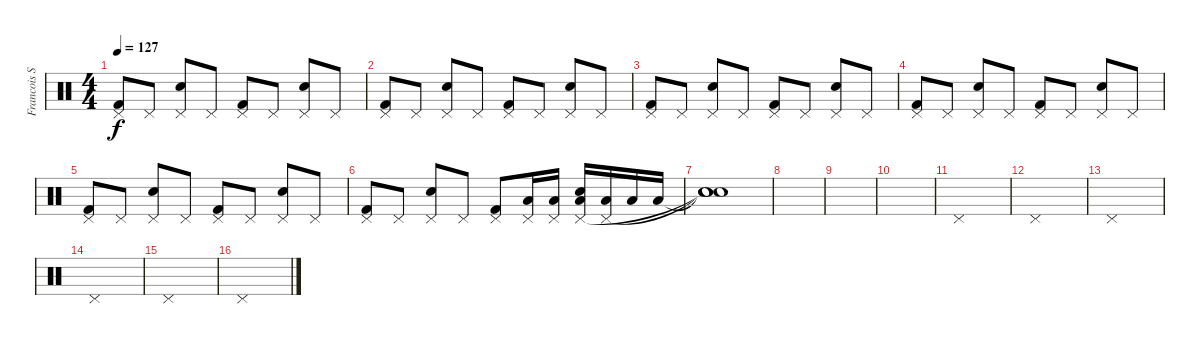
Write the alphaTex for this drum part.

\track ("Francois Soulier" "Francois S") {instrument percussion}
\staff {score}
\articulation defaults
\ts (4 4)
\tempo 127
\clef neutral
\ks c
("Kick (hit) 2" "Pedal Hi-Hat (hit)").8{dy f} "Pedal Hi-Hat (hit)".8 ("Snare (hit) 2" "Pedal Hi-Hat (hit)").8 "Pedal Hi-Hat (hit)".8 ("Kick (hit) 2" "Pedal Hi-Hat (hit)").8 "Pedal Hi-Hat (hit)".8 ("Snare (hit) 2" "Pedal Hi-Hat (hit)").8 "Pedal Hi-Hat (hit)".8 |
("Kick (hit) 2" "Pedal Hi-Hat (hit)").8 "Pedal Hi-Hat (hit)".8 ("Snare (hit) 2" "Pedal Hi-Hat (hit)").8 "Pedal Hi-Hat (hit)".8 ("Kick (hit) 2" "Pedal Hi-Hat (hit)").8 "Pedal Hi-Hat (hit)".8 ("Snare (hit) 2" "Pedal Hi-Hat (hit)").8 "Pedal Hi-Hat (hit)".8 |
("Kick (hit) 2" "Pedal Hi-Hat (hit)").8 "Pedal Hi-Hat (hit)".8 ("Snare (hit) 2" "Pedal Hi-Hat (hit)").8 "Pedal Hi-Hat (hit)".8 ("Kick (hit) 2" "Pedal Hi-Hat (hit)").8 "Pedal Hi-Hat (hit)".8 ("Snare (hit) 2" "Pedal Hi-Hat (hit)").8 "Pedal Hi-Hat (hit)".8 |
("Kick (hit) 2" "Pedal Hi-Hat (hit)").8 "Pedal Hi-Hat (hit)".8 ("Snare (hit) 2" "Pedal Hi-Hat (hit)").8 "Pedal Hi-Hat (hit)".8 ("Kick (hit) 2" "Pedal Hi-Hat (hit)").8 "Pedal Hi-Hat (hit)".8 ("Snare (hit) 2" "Pedal Hi-Hat (hit)").8 "Pedal Hi-Hat (hit)".8 |
("Kick (hit) 2" "Pedal Hi-Hat (hit)").8 "Pedal Hi-Hat (hit)".8 ("Snare (hit) 2" "Pedal Hi-Hat (hit)").8 "Pedal Hi-Hat (hit)".8 ("Kick (hit) 2" "Pedal Hi-Hat (hit)").8 "Pedal Hi-Hat (hit)".8 ("Snare (hit) 2" "Pedal Hi-Hat (hit)").8 "Pedal Hi-Hat (hit)".8 |
("Kick (hit) 2" "Pedal Hi-Hat (hit)").8 "Pedal Hi-Hat (hit)".8 ("Snare (hit) 2" "Pedal Hi-Hat (hit)").8 "Pedal Hi-Hat (hit)".8 ("Kick (hit) 2" "Pedal Hi-Hat (hit)").8 ("Low Floor Tom (hit)" "Pedal Hi-Hat (hit)").16 ("Low Floor Tom (hit)" "Pedal Hi-Hat (hit)").16 ("Low Floor Tom (hit)" "Snare (hit) 2" "Pedal Hi-Hat (hit)").16 ("Low Floor Tom (hit)" "Pedal Hi-Hat (hit)").16 "Low Floor Tom (hit)".16 "Low Floor Tom (hit)".16 |
("Snare (hit)"{t} "Snare (hit)"{t} "Snare (hit)"{t}).1 |
|
|
|
"Pedal Hi-Hat (hit)".1 |
"Pedal Hi-Hat (hit)".1 |
"Pedal Hi-Hat (hit)".1 |
"Pedal Hi-Hat (hit)".1 |
"Pedal Hi-Hat (hit)".1 |
"Pedal Hi-Hat (hit)".1
